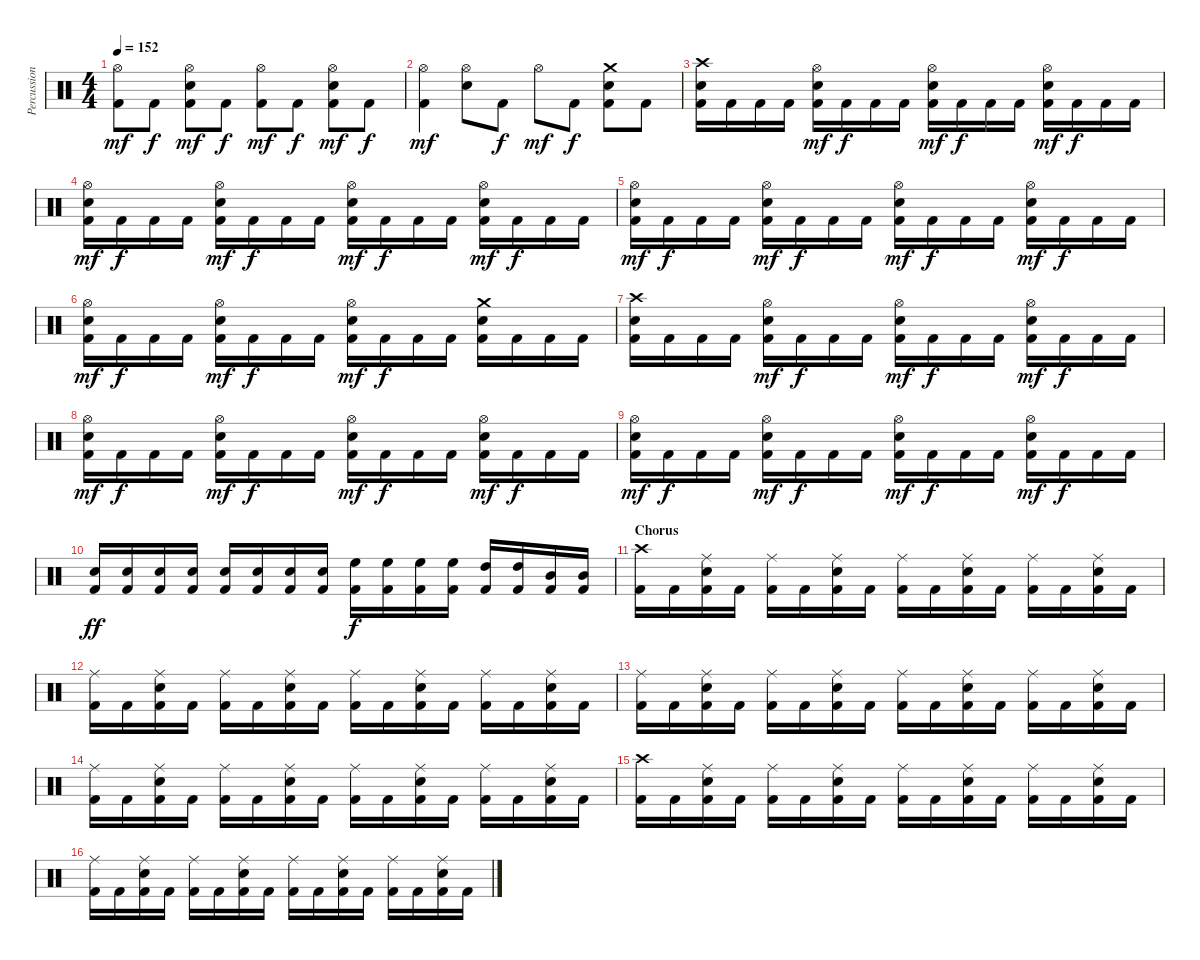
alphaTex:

\track ("Percussion" "Percussion") {instrument percussion}
\staff {score}
\articulation defaults
\ts (4 4)
\tempo 152
\clef neutral
\ks c
("Hi-Hat (open)" "Kick (hit) 2").8{dy mf} "Kick (hit) 2".8{dy f} ("Hi-Hat (open)" "Electric Snare (hit)" "Kick (hit) 2").8{dy mf} "Kick (hit) 2".8{dy f} ("Hi-Hat (open)" "Kick (hit) 2").8{dy mf} "Kick (hit) 2".8{dy f} ("Hi-Hat (open)" "Electric Snare (hit)" "Kick (hit) 2").8{dy mf} "Kick (hit) 2".8{dy f} |
("Hi-Hat (open)" "Kick (hit) 2").4{dy mf} ("Hi-Hat (open)" "Electric Snare (hit)").8 "Kick (hit) 2".8{dy f} "Hi-Hat (open)".8{dy mf} "Kick (hit) 2".8{dy f} ("Crash medium (hit)" "Electric Snare (hit)" "Kick (hit) 2").8 "Kick (hit) 2".8 |
("Crash high (hit)" "Electric Snare (hit)" "Kick (hit) 2").16 "Kick (hit) 2".16 "Kick (hit) 2".16 "Kick (hit) 2".16 ("Hi-Hat (open)" "Electric Snare (hit)" "Kick (hit) 2").16{dy mf} "Kick (hit) 2".16{dy f} "Kick (hit) 2".16 "Kick (hit) 2".16 ("Hi-Hat (open)" "Electric Snare (hit)" "Kick (hit) 2").16{dy mf} "Kick (hit) 2".16{dy f} "Kick (hit) 2".16 "Kick (hit) 2".16 ("Hi-Hat (open)" "Electric Snare (hit)" "Kick (hit) 2").16{dy mf} "Kick (hit) 2".16{dy f} "Kick (hit) 2".16 "Kick (hit) 2".16 |
("Hi-Hat (open)" "Electric Snare (hit)" "Kick (hit) 2").16{dy mf} "Kick (hit) 2".16{dy f} "Kick (hit) 2".16 "Kick (hit) 2".16 ("Hi-Hat (open)" "Electric Snare (hit)" "Kick (hit) 2").16{dy mf} "Kick (hit) 2".16{dy f} "Kick (hit) 2".16 "Kick (hit) 2".16 ("Hi-Hat (open)" "Electric Snare (hit)" "Kick (hit) 2").16{dy mf} "Kick (hit) 2".16{dy f} "Kick (hit) 2".16 "Kick (hit) 2".16 ("Hi-Hat (open)" "Electric Snare (hit)" "Kick (hit) 2").16{dy mf} "Kick (hit) 2".16{dy f} "Kick (hit) 2".16 "Kick (hit) 2".16 |
("Hi-Hat (open)" "Electric Snare (hit)" "Kick (hit) 2").16{dy mf} "Kick (hit) 2".16{dy f} "Kick (hit) 2".16 "Kick (hit) 2".16 ("Hi-Hat (open)" "Electric Snare (hit)" "Kick (hit) 2").16{dy mf} "Kick (hit) 2".16{dy f} "Kick (hit) 2".16 "Kick (hit) 2".16 ("Hi-Hat (open)" "Electric Snare (hit)" "Kick (hit) 2").16{dy mf} "Kick (hit) 2".16{dy f} "Kick (hit) 2".16 "Kick (hit) 2".16 ("Hi-Hat (open)" "Electric Snare (hit)" "Kick (hit) 2").16{dy mf} "Kick (hit) 2".16{dy f} "Kick (hit) 2".16 "Kick (hit) 2".16 |
("Hi-Hat (open)" "Electric Snare (hit)" "Kick (hit) 2").16{dy mf} "Kick (hit) 2".16{dy f} "Kick (hit) 2".16 "Kick (hit) 2".16 ("Hi-Hat (open)" "Electric Snare (hit)" "Kick (hit) 2").16{dy mf} "Kick (hit) 2".16{dy f} "Kick (hit) 2".16 "Kick (hit) 2".16 ("Hi-Hat (open)" "Electric Snare (hit)" "Kick (hit) 2").16{dy mf} "Kick (hit) 2".16{dy f} "Kick (hit) 2".16 "Kick (hit) 2".16 ("Crash medium (hit)" "Electric Snare (hit)" "Kick (hit) 2").16 "Kick (hit) 2".16 "Kick (hit) 2".16 "Kick (hit) 2".16 |
("Crash high (hit)" "Electric Snare (hit)" "Kick (hit) 2").16 "Kick (hit) 2".16 "Kick (hit) 2".16 "Kick (hit) 2".16 ("Hi-Hat (open)" "Electric Snare (hit)" "Kick (hit) 2").16{dy mf} "Kick (hit) 2".16{dy f} "Kick (hit) 2".16 "Kick (hit) 2".16 ("Hi-Hat (open)" "Electric Snare (hit)" "Kick (hit) 2").16{dy mf} "Kick (hit) 2".16{dy f} "Kick (hit) 2".16 "Kick (hit) 2".16 ("Hi-Hat (open)" "Electric Snare (hit)" "Kick (hit) 2").16{dy mf} "Kick (hit) 2".16{dy f} "Kick (hit) 2".16 "Kick (hit) 2".16 |
("Hi-Hat (open)" "Electric Snare (hit)" "Kick (hit) 2").16{dy mf} "Kick (hit) 2".16{dy f} "Kick (hit) 2".16 "Kick (hit) 2".16 ("Hi-Hat (open)" "Electric Snare (hit)" "Kick (hit) 2").16{dy mf} "Kick (hit) 2".16{dy f} "Kick (hit) 2".16 "Kick (hit) 2".16 ("Hi-Hat (open)" "Electric Snare (hit)" "Kick (hit) 2").16{dy mf} "Kick (hit) 2".16{dy f} "Kick (hit) 2".16 "Kick (hit) 2".16 ("Hi-Hat (open)" "Electric Snare (hit)" "Kick (hit) 2").16{dy mf} "Kick (hit) 2".16{dy f} "Kick (hit) 2".16 "Kick (hit) 2".16 |
("Hi-Hat (open)" "Electric Snare (hit)" "Kick (hit) 2").16{dy mf} "Kick (hit) 2".16{dy f} "Kick (hit) 2".16 "Kick (hit) 2".16 ("Hi-Hat (open)" "Electric Snare (hit)" "Kick (hit) 2").16{dy mf} "Kick (hit) 2".16{dy f} "Kick (hit) 2".16 "Kick (hit) 2".16 ("Hi-Hat (open)" "Electric Snare (hit)" "Kick (hit) 2").16{dy mf} "Kick (hit) 2".16{dy f} "Kick (hit) 2".16 "Kick (hit) 2".16 ("Hi-Hat (open)" "Electric Snare (hit)" "Kick (hit) 2").16{dy mf} "Kick (hit) 2".16{dy f} "Kick (hit) 2".16 "Kick (hit) 2".16 |
("Electric Snare (hit)" "Kick (hit) 2").16{dy ff} ("Electric Snare (hit)" "Kick (hit) 2").16 ("Electric Snare (hit)" "Kick (hit) 2").16 ("Electric Snare (hit)" "Kick (hit) 2").16 ("Electric Snare (hit)" "Kick (hit) 2").16 ("Electric Snare (hit)" "Kick (hit) 2").16 ("Electric Snare (hit)" "Kick (hit) 2").16 ("Electric Snare (hit)" "Kick (hit) 2").16 ("High Floor Tom (hit)" "Kick (hit) 2").16{dy f} ("High Floor Tom (hit)" "Kick (hit) 2").16 ("High Floor Tom (hit)" "Kick (hit) 2").16 ("High Floor Tom (hit)" "Kick (hit) 2").16 ("High Tom (hit)" "Kick (hit) 2").16 ("High Tom (hit)" "Kick (hit) 2").16 ("Mid Tom (hit)" "Kick (hit) 2").16 ("Mid Tom (hit)" "Kick (hit) 2").16 |
\section ("" "Chorus")
("Crash high (hit)" "Kick (hit) 2").16 "Kick (hit) 2".16 ("Ride (middle)" "Electric Snare (hit)" "Kick (hit) 2").16 "Kick (hit) 2".16 ("Ride (middle)" "Kick (hit) 2").16 "Kick (hit) 2".16 ("Ride (middle)" "Electric Snare (hit)" "Kick (hit) 2").16 "Kick (hit) 2".16 ("Ride (middle)" "Kick (hit) 2").16 "Kick (hit) 2".16 ("Ride (middle)" "Electric Snare (hit)" "Kick (hit) 2").16 "Kick (hit) 2".16 ("Ride (middle)" "Kick (hit) 2").16 "Kick (hit) 2".16 ("Ride (middle)" "Electric Snare (hit)" "Kick (hit) 2").16 "Kick (hit) 2".16 |
("Ride (middle)" "Kick (hit) 2").16 "Kick (hit) 2".16 ("Ride (middle)" "Electric Snare (hit)" "Kick (hit) 2").16 "Kick (hit) 2".16 ("Ride (middle)" "Kick (hit) 2").16 "Kick (hit) 2".16 ("Ride (middle)" "Electric Snare (hit)" "Kick (hit) 2").16 "Kick (hit) 2".16 ("Ride (middle)" "Kick (hit) 2").16 "Kick (hit) 2".16 ("Ride (middle)" "Electric Snare (hit)" "Kick (hit) 2").16 "Kick (hit) 2".16 ("Ride (middle)" "Kick (hit) 2").16 "Kick (hit) 2".16 ("Ride (middle)" "Electric Snare (hit)" "Kick (hit) 2").16 "Kick (hit) 2".16 |
("Ride (middle)" "Kick (hit) 2").16 "Kick (hit) 2".16 ("Ride (middle)" "Electric Snare (hit)" "Kick (hit) 2").16 "Kick (hit) 2".16 ("Ride (middle)" "Kick (hit) 2").16 "Kick (hit) 2".16 ("Ride (middle)" "Electric Snare (hit)" "Kick (hit) 2").16 "Kick (hit) 2".16 ("Ride (middle)" "Kick (hit) 2").16 "Kick (hit) 2".16 ("Ride (middle)" "Electric Snare (hit)" "Kick (hit) 2").16 "Kick (hit) 2".16 ("Ride (middle)" "Kick (hit) 2").16 "Kick (hit) 2".16 ("Ride (middle)" "Electric Snare (hit)" "Kick (hit) 2").16 "Kick (hit) 2".16 |
("Ride (middle)" "Kick (hit) 2").16 "Kick (hit) 2".16 ("Ride (middle)" "Electric Snare (hit)" "Kick (hit) 2").16 "Kick (hit) 2".16 ("Ride (middle)" "Kick (hit) 2").16 "Kick (hit) 2".16 ("Ride (middle)" "Electric Snare (hit)" "Kick (hit) 2").16 "Kick (hit) 2".16 ("Ride (middle)" "Kick (hit) 2").16 "Kick (hit) 2".16 ("Ride (middle)" "Electric Snare (hit)" "Kick (hit) 2").16 "Kick (hit) 2".16 ("Ride (middle)" "Kick (hit) 2").16 "Kick (hit) 2".16 ("Ride (middle)" "Electric Snare (hit)" "Kick (hit) 2").16 "Kick (hit) 2".16 |
("Crash high (hit)" "Kick (hit) 2").16 "Kick (hit) 2".16 ("Ride (middle)" "Electric Snare (hit)" "Kick (hit) 2").16 "Kick (hit) 2".16 ("Ride (middle)" "Kick (hit) 2").16 "Kick (hit) 2".16 ("Ride (middle)" "Electric Snare (hit)" "Kick (hit) 2").16 "Kick (hit) 2".16 ("Ride (middle)" "Kick (hit) 2").16 "Kick (hit) 2".16 ("Ride (middle)" "Electric Snare (hit)" "Kick (hit) 2").16 "Kick (hit) 2".16 ("Ride (middle)" "Kick (hit) 2").16 "Kick (hit) 2".16 ("Ride (middle)" "Electric Snare (hit)" "Kick (hit) 2").16 "Kick (hit) 2".16 |
("Ride (middle)" "Kick (hit) 2").16 "Kick (hit) 2".16 ("Ride (middle)" "Electric Snare (hit)" "Kick (hit) 2").16 "Kick (hit) 2".16 ("Ride (middle)" "Kick (hit) 2").16 "Kick (hit) 2".16 ("Ride (middle)" "Electric Snare (hit)" "Kick (hit) 2").16 "Kick (hit) 2".16 ("Ride (middle)" "Kick (hit) 2").16 "Kick (hit) 2".16 ("Ride (middle)" "Electric Snare (hit)" "Kick (hit) 2").16 "Kick (hit) 2".16 ("Ride (middle)" "Kick (hit) 2").16 "Kick (hit) 2".16 ("Ride (middle)" "Electric Snare (hit)" "Kick (hit) 2").16 "Kick (hit) 2".16
